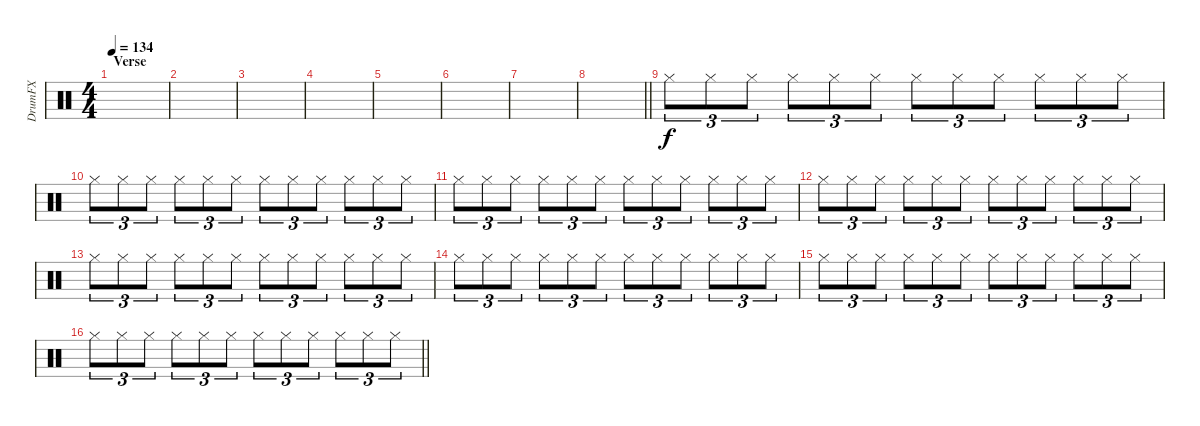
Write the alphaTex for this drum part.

\track ("DrumFX" "DrumFX") {instrument percussion}
\staff {score}
\articulation defaults
\ts (4 4)
\section ("" "Verse")
\tempo 134
\clef neutral
\ks c
|
|
|
|
|
|
|
\barLineRight lightlight
|
\section ("" "")
"Hi-Hat (closed)".8{tu (3 2)} "Hi-Hat (closed)".8{tu (3 2)} "Hi-Hat (closed)".8{tu (3 2)} "Hi-Hat (closed)".8{tu (3 2)} "Hi-Hat (closed)".8{tu (3 2)} "Hi-Hat (closed)".8{tu (3 2)} "Hi-Hat (closed)".8{tu (3 2)} "Hi-Hat (closed)".8{tu (3 2)} "Hi-Hat (closed)".8{tu (3 2)} "Hi-Hat (closed)".8{tu (3 2)} "Hi-Hat (closed)".8{tu (3 2)} "Hi-Hat (closed)".8{tu (3 2)} |
"Hi-Hat (closed)".8{tu (3 2)} "Hi-Hat (closed)".8{tu (3 2)} "Hi-Hat (closed)".8{tu (3 2)} "Hi-Hat (closed)".8{tu (3 2)} "Hi-Hat (closed)".8{tu (3 2)} "Hi-Hat (closed)".8{tu (3 2)} "Hi-Hat (closed)".8{tu (3 2)} "Hi-Hat (closed)".8{tu (3 2)} "Hi-Hat (closed)".8{tu (3 2)} "Hi-Hat (closed)".8{tu (3 2)} "Hi-Hat (closed)".8{tu (3 2)} "Hi-Hat (closed)".8{tu (3 2)} |
"Hi-Hat (closed)".8{tu (3 2)} "Hi-Hat (closed)".8{tu (3 2)} "Hi-Hat (closed)".8{tu (3 2)} "Hi-Hat (closed)".8{tu (3 2)} "Hi-Hat (closed)".8{tu (3 2)} "Hi-Hat (closed)".8{tu (3 2)} "Hi-Hat (closed)".8{tu (3 2)} "Hi-Hat (closed)".8{tu (3 2)} "Hi-Hat (closed)".8{tu (3 2)} "Hi-Hat (closed)".8{tu (3 2)} "Hi-Hat (closed)".8{tu (3 2)} "Hi-Hat (closed)".8{tu (3 2)} |
"Hi-Hat (closed)".8{tu (3 2)} "Hi-Hat (closed)".8{tu (3 2)} "Hi-Hat (closed)".8{tu (3 2)} "Hi-Hat (closed)".8{tu (3 2)} "Hi-Hat (closed)".8{tu (3 2)} "Hi-Hat (closed)".8{tu (3 2)} "Hi-Hat (closed)".8{tu (3 2)} "Hi-Hat (closed)".8{tu (3 2)} "Hi-Hat (closed)".8{tu (3 2)} "Hi-Hat (closed)".8{tu (3 2)} "Hi-Hat (closed)".8{tu (3 2)} "Hi-Hat (closed)".8{tu (3 2)} |
"Hi-Hat (closed)".8{tu (3 2)} "Hi-Hat (closed)".8{tu (3 2)} "Hi-Hat (closed)".8{tu (3 2)} "Hi-Hat (closed)".8{tu (3 2)} "Hi-Hat (closed)".8{tu (3 2)} "Hi-Hat (closed)".8{tu (3 2)} "Hi-Hat (closed)".8{tu (3 2)} "Hi-Hat (closed)".8{tu (3 2)} "Hi-Hat (closed)".8{tu (3 2)} "Hi-Hat (closed)".8{tu (3 2)} "Hi-Hat (closed)".8{tu (3 2)} "Hi-Hat (closed)".8{tu (3 2)} |
"Hi-Hat (closed)".8{tu (3 2)} "Hi-Hat (closed)".8{tu (3 2)} "Hi-Hat (closed)".8{tu (3 2)} "Hi-Hat (closed)".8{tu (3 2)} "Hi-Hat (closed)".8{tu (3 2)} "Hi-Hat (closed)".8{tu (3 2)} "Hi-Hat (closed)".8{tu (3 2)} "Hi-Hat (closed)".8{tu (3 2)} "Hi-Hat (closed)".8{tu (3 2)} "Hi-Hat (closed)".8{tu (3 2)} "Hi-Hat (closed)".8{tu (3 2)} "Hi-Hat (closed)".8{tu (3 2)} |
"Hi-Hat (closed)".8{tu (3 2)} "Hi-Hat (closed)".8{tu (3 2)} "Hi-Hat (closed)".8{tu (3 2)} "Hi-Hat (closed)".8{tu (3 2)} "Hi-Hat (closed)".8{tu (3 2)} "Hi-Hat (closed)".8{tu (3 2)} "Hi-Hat (closed)".8{tu (3 2)} "Hi-Hat (closed)".8{tu (3 2)} "Hi-Hat (closed)".8{tu (3 2)} "Hi-Hat (closed)".8{tu (3 2)} "Hi-Hat (closed)".8{tu (3 2)} "Hi-Hat (closed)".8{tu (3 2)} |
\barLineRight lightlight "Hi-Hat (closed)".8{tu (3 2)} "Hi-Hat (closed)".8{tu (3 2)} "Hi-Hat (closed)".8{tu (3 2)} "Hi-Hat (closed)".8{tu (3 2)} "Hi-Hat (closed)".8{tu (3 2)} "Hi-Hat (closed)".8{tu (3 2)} "Hi-Hat (closed)".8{tu (3 2)} "Hi-Hat (closed)".8{tu (3 2)} "Hi-Hat (closed)".8{tu (3 2)} "Hi-Hat (closed)".8{tu (3 2)} "Hi-Hat (closed)".8{tu (3 2)} "Hi-Hat (closed)".8{tu (3 2)}
